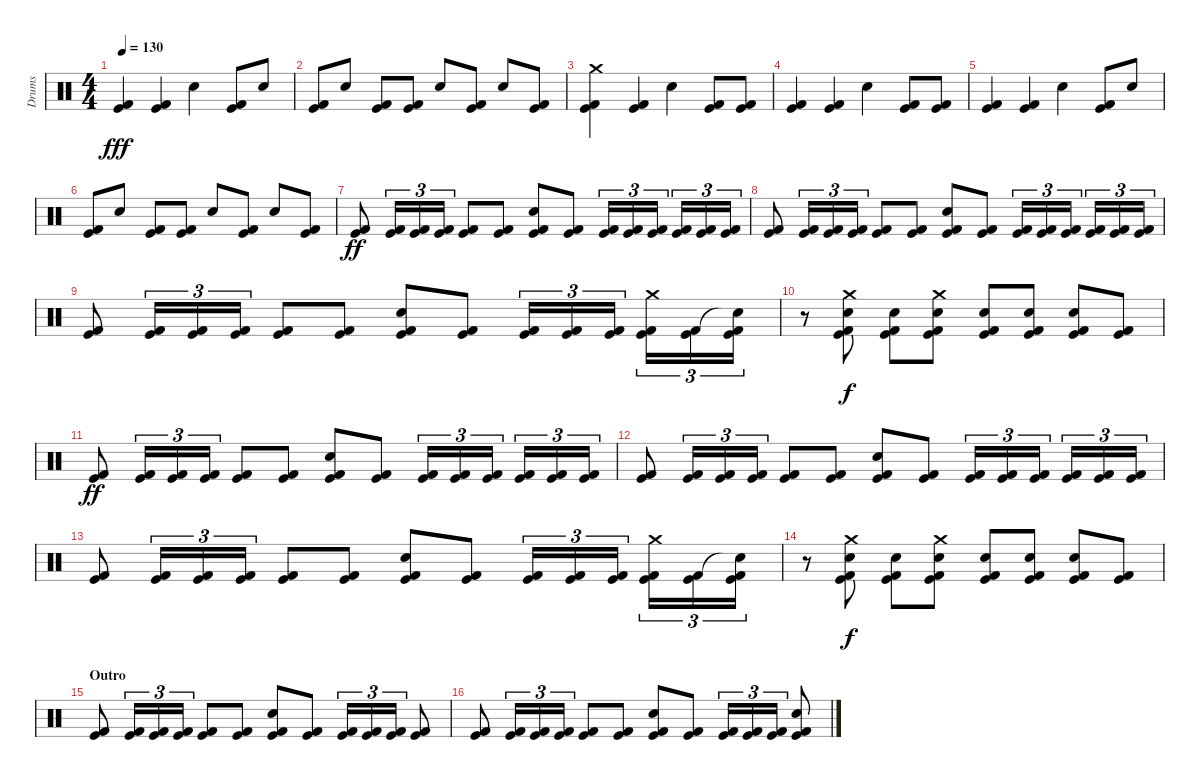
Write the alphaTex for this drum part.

\track ("Drums" "Drums") {instrument percussion}
\staff {score}
\articulation defaults
\ts (4 4)
\tempo 130
\clef neutral
\ks c
("Kick (hit)" "Kick (hit) 2").4{dy fff} ("Kick (hit)" "Kick (hit) 2").4 "Electric Snare (hit)".4 ("Kick (hit)" "Kick (hit) 2").8 "Electric Snare (hit)".8 |
("Kick (hit)" "Kick (hit) 2").8 "Electric Snare (hit)".8 ("Kick (hit)" "Kick (hit) 2").8 ("Kick (hit)" "Kick (hit) 2").8 "Electric Snare (hit)".8 ("Kick (hit)" "Kick (hit) 2").8 "Electric Snare (hit)".8 ("Kick (hit)" "Kick (hit) 2").8 |
("Crash medium (hit)" "Kick (hit)" "Kick (hit) 2").4 ("Kick (hit)" "Kick (hit) 2").4 "Electric Snare (hit)".4 ("Kick (hit)" "Kick (hit) 2").8 ("Kick (hit)" "Kick (hit) 2").8 |
("Kick (hit)" "Kick (hit) 2").4 ("Kick (hit)" "Kick (hit) 2").4 "Electric Snare (hit)".4 ("Kick (hit)" "Kick (hit) 2").8 ("Kick (hit)" "Kick (hit) 2").8 |
("Kick (hit)" "Kick (hit) 2").4 ("Kick (hit)" "Kick (hit) 2").4 "Electric Snare (hit)".4 ("Kick (hit)" "Kick (hit) 2").8 "Electric Snare (hit)".8 |
("Kick (hit)" "Kick (hit) 2").8 "Electric Snare (hit)".8 ("Kick (hit)" "Kick (hit) 2").8 ("Kick (hit)" "Kick (hit) 2").8 "Electric Snare (hit)".8 ("Kick (hit)" "Kick (hit) 2").8 "Electric Snare (hit)".8 ("Kick (hit)" "Kick (hit) 2").8 |
("Kick (hit)" "Kick (hit) 2").8{dy ff} ("Kick (hit)" "Kick (hit) 2").16{tu (3 2)} ("Kick (hit)" "Kick (hit) 2").16{tu (3 2)} ("Kick (hit)" "Kick (hit) 2").16{tu (3 2)} ("Kick (hit)" "Kick (hit) 2").8 ("Kick (hit)" "Kick (hit) 2").8 ("Electric Snare (hit)" "Kick (hit)" "Kick (hit) 2").8 ("Kick (hit)" "Kick (hit) 2").8 ("Kick (hit)" "Kick (hit) 2").16{tu (3 2)} ("Kick (hit)" "Kick (hit) 2").16{tu (3 2)} ("Kick (hit)" "Kick (hit) 2").16{tu (3 2)} ("Kick (hit)" "Kick (hit) 2").16{tu (3 2)} ("Kick (hit)" "Kick (hit) 2").16{tu (3 2)} ("Kick (hit)" "Kick (hit) 2").16{tu (3 2)} |
("Kick (hit)" "Kick (hit) 2").8 ("Kick (hit)" "Kick (hit) 2").16{tu (3 2)} ("Kick (hit)" "Kick (hit) 2").16{tu (3 2)} ("Kick (hit)" "Kick (hit) 2").16{tu (3 2)} ("Kick (hit)" "Kick (hit) 2").8 ("Kick (hit)" "Kick (hit) 2").8 ("Electric Snare (hit)" "Kick (hit)" "Kick (hit) 2").8 ("Kick (hit)" "Kick (hit) 2").8 ("Kick (hit)" "Kick (hit) 2").16{tu (3 2)} ("Kick (hit)" "Kick (hit) 2").16{tu (3 2)} ("Kick (hit)" "Kick (hit) 2").16{tu (3 2)} ("Kick (hit)" "Kick (hit) 2").16{tu (3 2)} ("Kick (hit)" "Kick (hit) 2").16{tu (3 2)} ("Kick (hit)" "Kick (hit) 2").16{tu (3 2)} |
("Kick (hit)" "Kick (hit) 2").8 ("Kick (hit)" "Kick (hit) 2").16{tu (3 2)} ("Kick (hit)" "Kick (hit) 2").16{tu (3 2)} ("Kick (hit)" "Kick (hit) 2").16{tu (3 2)} ("Kick (hit)" "Kick (hit) 2").8 ("Kick (hit)" "Kick (hit) 2").8 ("Electric Snare (hit)" "Kick (hit)" "Kick (hit) 2").8 ("Kick (hit)" "Kick (hit) 2").8 ("Kick (hit)" "Kick (hit) 2").16{tu (3 2)} ("Kick (hit)" "Kick (hit) 2").16{tu (3 2)} ("Kick (hit)" "Kick (hit) 2").16{tu (3 2)} ("Crash medium (hit)" "Kick (hit)" "Kick (hit) 2").16{tu (3 2)} ("Kick (hit)" "Kick (hit) 2").16{tu (3 2)} ("Snare (hit)"{t} "Kick (hit)" "Kick (hit) 2").16{tu (3 2)} |
r.8 ("Crash medium (hit)" "Electric Snare (hit)" "Kick (hit)" "Kick (hit) 2").8{dy f} ("Electric Snare (hit)" "Kick (hit)" "Kick (hit) 2").8 ("Crash medium (hit)" "Electric Snare (hit)" "Kick (hit)" "Kick (hit) 2").8 ("Electric Snare (hit)" "Kick (hit)" "Kick (hit) 2").8 ("Electric Snare (hit)" "Kick (hit)" "Kick (hit) 2").8 ("Electric Snare (hit)" "Kick (hit)" "Kick (hit) 2").8 ("Kick (hit)" "Kick (hit) 2").8 |
("Kick (hit)" "Kick (hit) 2").8{dy ff} ("Kick (hit)" "Kick (hit) 2").16{tu (3 2)} ("Kick (hit)" "Kick (hit) 2").16{tu (3 2)} ("Kick (hit)" "Kick (hit) 2").16{tu (3 2)} ("Kick (hit)" "Kick (hit) 2").8 ("Kick (hit)" "Kick (hit) 2").8 ("Electric Snare (hit)" "Kick (hit)" "Kick (hit) 2").8 ("Kick (hit)" "Kick (hit) 2").8 ("Kick (hit)" "Kick (hit) 2").16{tu (3 2)} ("Kick (hit)" "Kick (hit) 2").16{tu (3 2)} ("Kick (hit)" "Kick (hit) 2").16{tu (3 2)} ("Kick (hit)" "Kick (hit) 2").16{tu (3 2)} ("Kick (hit)" "Kick (hit) 2").16{tu (3 2)} ("Kick (hit)" "Kick (hit) 2").16{tu (3 2)} |
("Kick (hit)" "Kick (hit) 2").8 ("Kick (hit)" "Kick (hit) 2").16{tu (3 2)} ("Kick (hit)" "Kick (hit) 2").16{tu (3 2)} ("Kick (hit)" "Kick (hit) 2").16{tu (3 2)} ("Kick (hit)" "Kick (hit) 2").8 ("Kick (hit)" "Kick (hit) 2").8 ("Electric Snare (hit)" "Kick (hit)" "Kick (hit) 2").8 ("Kick (hit)" "Kick (hit) 2").8 ("Kick (hit)" "Kick (hit) 2").16{tu (3 2)} ("Kick (hit)" "Kick (hit) 2").16{tu (3 2)} ("Kick (hit)" "Kick (hit) 2").16{tu (3 2)} ("Kick (hit)" "Kick (hit) 2").16{tu (3 2)} ("Kick (hit)" "Kick (hit) 2").16{tu (3 2)} ("Kick (hit)" "Kick (hit) 2").16{tu (3 2)} |
("Kick (hit)" "Kick (hit) 2").8 ("Kick (hit)" "Kick (hit) 2").16{tu (3 2)} ("Kick (hit)" "Kick (hit) 2").16{tu (3 2)} ("Kick (hit)" "Kick (hit) 2").16{tu (3 2)} ("Kick (hit)" "Kick (hit) 2").8 ("Kick (hit)" "Kick (hit) 2").8 ("Electric Snare (hit)" "Kick (hit)" "Kick (hit) 2").8 ("Kick (hit)" "Kick (hit) 2").8 ("Kick (hit)" "Kick (hit) 2").16{tu (3 2)} ("Kick (hit)" "Kick (hit) 2").16{tu (3 2)} ("Kick (hit)" "Kick (hit) 2").16{tu (3 2)} ("Crash medium (hit)" "Kick (hit)" "Kick (hit) 2").16{tu (3 2)} ("Kick (hit)" "Kick (hit) 2").16{tu (3 2)} ("Snare (hit)"{t} "Kick (hit)" "Kick (hit) 2").16{tu (3 2)} |
r.8 ("Crash medium (hit)" "Electric Snare (hit)" "Kick (hit)" "Kick (hit) 2").8{dy f} ("Electric Snare (hit)" "Kick (hit)" "Kick (hit) 2").8 ("Crash medium (hit)" "Electric Snare (hit)" "Kick (hit)" "Kick (hit) 2").8 ("Electric Snare (hit)" "Kick (hit)" "Kick (hit) 2").8 ("Electric Snare (hit)" "Kick (hit)" "Kick (hit) 2").8 ("Electric Snare (hit)" "Kick (hit)" "Kick (hit) 2").8 ("Kick (hit)" "Kick (hit) 2").8 |
\section ("" "Outro")
("Kick (hit)" "Kick (hit) 2").8 ("Kick (hit)" "Kick (hit) 2").16{tu (3 2)} ("Kick (hit)" "Kick (hit) 2").16{tu (3 2)} ("Kick (hit)" "Kick (hit) 2").16{tu (3 2)} ("Kick (hit)" "Kick (hit) 2").8 ("Kick (hit)" "Kick (hit) 2").8 ("Electric Snare (hit)" "Kick (hit)" "Kick (hit) 2").8 ("Kick (hit)" "Kick (hit) 2").8 ("Kick (hit)" "Kick (hit) 2").16{tu (3 2)} ("Kick (hit)" "Kick (hit) 2").16{tu (3 2)} ("Kick (hit)" "Kick (hit) 2").16{tu (3 2)} ("Kick (hit)" "Kick (hit) 2").8 |
("Kick (hit)" "Kick (hit) 2").8 ("Kick (hit)" "Kick (hit) 2").16{tu (3 2)} ("Kick (hit)" "Kick (hit) 2").16{tu (3 2)} ("Kick (hit)" "Kick (hit) 2").16{tu (3 2)} ("Kick (hit)" "Kick (hit) 2").8 ("Kick (hit)" "Kick (hit) 2").8 ("Electric Snare (hit)" "Kick (hit)" "Kick (hit) 2").8 ("Kick (hit)" "Kick (hit) 2").8 ("Kick (hit)" "Kick (hit) 2").16{tu (3 2)} ("Kick (hit)" "Kick (hit) 2").16{tu (3 2)} ("Kick (hit)" "Kick (hit) 2").16{tu (3 2)} ("Electric Snare (hit)" "Kick (hit)" "Kick (hit) 2").8
